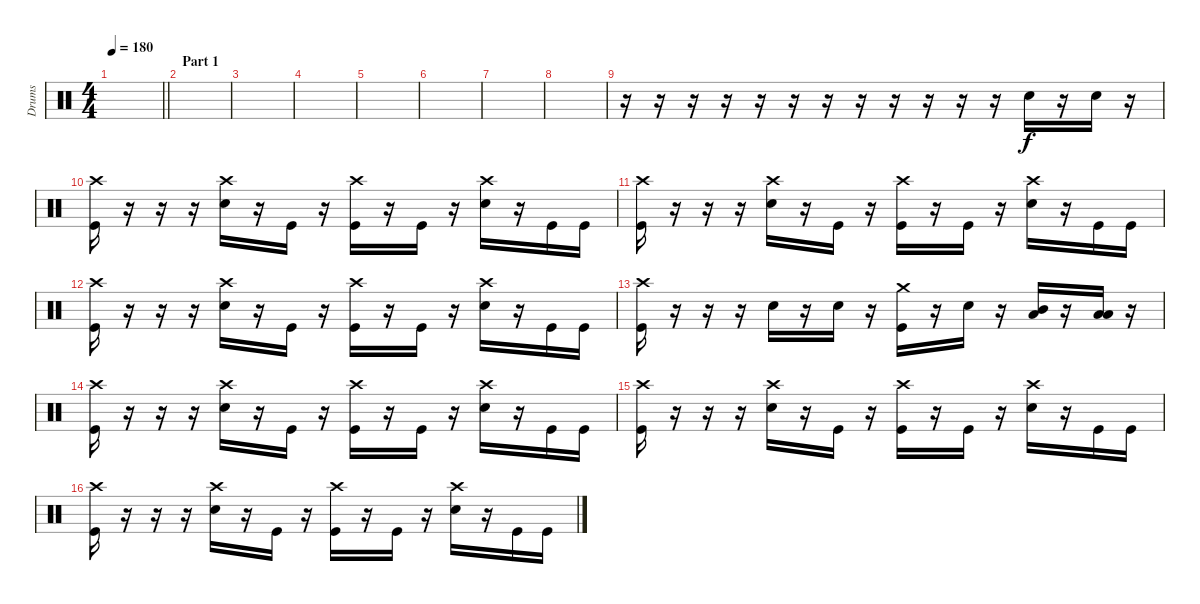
\track ("Drums" "Drums") {instrument percussion}
\staff {score}
\articulation defaults
\ts (4 4)
\tempo 180
\clef neutral
\barLineRight lightlight
\ks c
|
\section ("" "Part 1")
|
|
|
|
|
|
|
r.16 r.16 r.16 r.16 r.16 r.16 r.16 r.16 r.16 r.16 r.16 r.16 "Electric Snare (hit)".16 r.16 "Electric Snare (hit)".16 r.16 |
("Crash high (hit)" "Kick (hit)").16 r.16 r.16 r.16 ("Crash high (hit)" "Electric Snare (hit)").16 r.16 "Kick (hit)".16 r.16 ("Crash high (hit)" "Kick (hit)").16 r.16 "Kick (hit)".16 r.16 ("Crash high (hit)" "Electric Snare (hit)").16 r.16 "Kick (hit)".16 "Kick (hit)".16 |
("Crash high (hit)" "Kick (hit)").16 r.16 r.16 r.16 ("Crash high (hit)" "Electric Snare (hit)").16 r.16 "Kick (hit)".16 r.16 ("Crash high (hit)" "Kick (hit)").16 r.16 "Kick (hit)".16 r.16 ("Crash high (hit)" "Electric Snare (hit)").16 r.16 "Kick (hit)".16 "Kick (hit)".16 |
("Crash high (hit)" "Kick (hit)").16 r.16 r.16 r.16 ("Crash high (hit)" "Electric Snare (hit)").16 r.16 "Kick (hit)".16 r.16 ("Crash high (hit)" "Kick (hit)").16 r.16 "Kick (hit)".16 r.16 ("Crash high (hit)" "Electric Snare (hit)").16 r.16 "Kick (hit)".16 "Kick (hit)".16 |
("Crash high (hit)" "Kick (hit)").16 r.16 r.16 r.16 "Electric Snare (hit)".16 r.16 "Electric Snare (hit)".16 r.16 ("Crash medium (hit)" "Kick (hit)").16 r.16 "Electric Snare (hit)".16 r.16 ("Mid Tom (hit)" "Low Tom (hit)").16 r.16 ("Low Tom (hit)" "Low Floor Tom (hit)").16 r.16 |
("Crash high (hit)" "Kick (hit)").16 r.16 r.16 r.16 ("Crash high (hit)" "Electric Snare (hit)").16 r.16 "Kick (hit)".16 r.16 ("Crash high (hit)" "Kick (hit)").16 r.16 "Kick (hit)".16 r.16 ("Crash high (hit)" "Electric Snare (hit)").16 r.16 "Kick (hit)".16 "Kick (hit)".16 |
("Crash high (hit)" "Kick (hit)").16 r.16 r.16 r.16 ("Crash high (hit)" "Electric Snare (hit)").16 r.16 "Kick (hit)".16 r.16 ("Crash high (hit)" "Kick (hit)").16 r.16 "Kick (hit)".16 r.16 ("Crash high (hit)" "Electric Snare (hit)").16 r.16 "Kick (hit)".16 "Kick (hit)".16 |
("Crash high (hit)" "Kick (hit)").16 r.16 r.16 r.16 ("Crash high (hit)" "Electric Snare (hit)").16 r.16 "Kick (hit)".16 r.16 ("Crash high (hit)" "Kick (hit)").16 r.16 "Kick (hit)".16 r.16 ("Crash high (hit)" "Electric Snare (hit)").16 r.16 "Kick (hit)".16 "Kick (hit)".16
